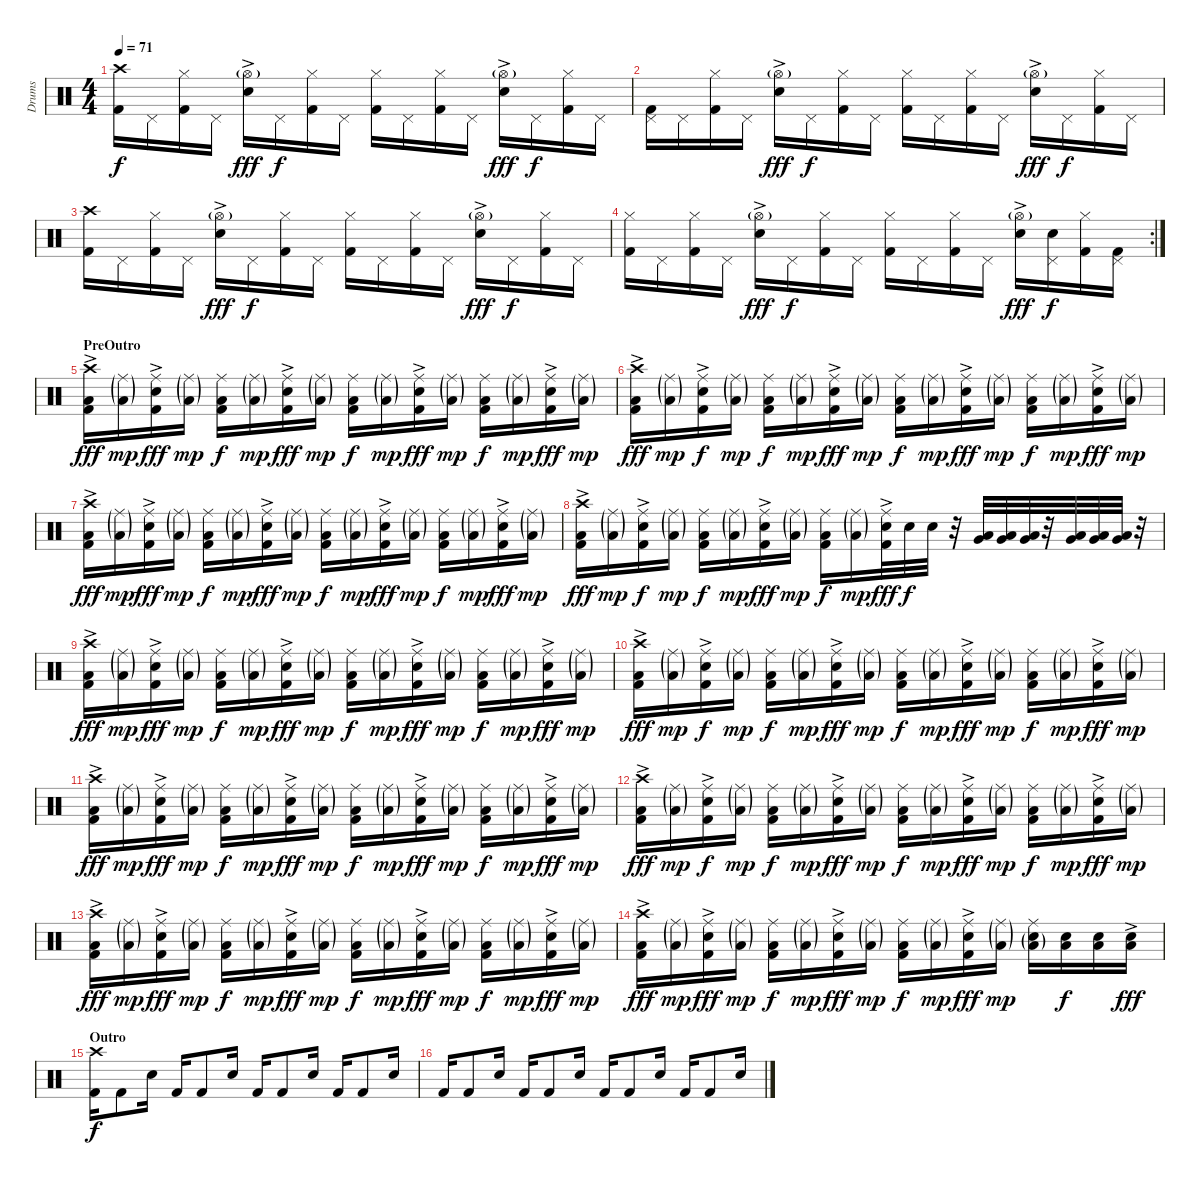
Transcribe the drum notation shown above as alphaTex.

\track ("Drums" "Drums") {instrument percussion}
\staff {score}
\articulation defaults
\ts (4 4)
\tempo 71
\clef neutral
\ks c
("Crash high (hit)" "Kick (hit) 2").16{dy f} "Pedal Hi-Hat (hit)".16 ("Hi-Hat (closed)" "Kick (hit) 2").16 "Pedal Hi-Hat (hit)".16 ("Hi-Hat (open)"{g} "Snare (hit) 2"{ac}).16{dy fff} "Pedal Hi-Hat (hit)".16{dy f} ("Hi-Hat (closed)" "Kick (hit) 2").16 "Pedal Hi-Hat (hit)".16 ("Hi-Hat (closed)" "Kick (hit) 2").16 "Pedal Hi-Hat (hit)".16 ("Hi-Hat (closed)" "Kick (hit) 2").16 "Pedal Hi-Hat (hit)".16 ("Hi-Hat (open)"{g} "Snare (hit) 2"{ac}).16{dy fff} "Pedal Hi-Hat (hit)".16{dy f} ("Hi-Hat (closed)" "Kick (hit) 2").16 "Pedal Hi-Hat (hit)".16 |
("Pedal Hi-Hat (hit)" "Kick (hit) 2").16 "Pedal Hi-Hat (hit)".16 ("Hi-Hat (closed)" "Kick (hit) 2").16 "Pedal Hi-Hat (hit)".16 ("Hi-Hat (open)"{g} "Snare (hit) 2"{ac}).16{dy fff} "Pedal Hi-Hat (hit)".16{dy f} ("Hi-Hat (closed)" "Kick (hit) 2").16 "Pedal Hi-Hat (hit)".16 ("Hi-Hat (closed)" "Kick (hit) 2").16 "Pedal Hi-Hat (hit)".16 ("Hi-Hat (closed)" "Kick (hit) 2").16 "Pedal Hi-Hat (hit)".16 ("Hi-Hat (open)"{g} "Snare (hit) 2"{ac}).16{dy fff} "Pedal Hi-Hat (hit)".16{dy f} ("Hi-Hat (closed)" "Kick (hit) 2").16 "Pedal Hi-Hat (hit)".16 |
("Crash high (hit)" "Kick (hit) 2").16 "Pedal Hi-Hat (hit)".16 ("Hi-Hat (closed)" "Kick (hit) 2").16 "Pedal Hi-Hat (hit)".16 ("Hi-Hat (open)"{g} "Snare (hit) 2"{ac}).16{dy fff} "Pedal Hi-Hat (hit)".16{dy f} ("Hi-Hat (closed)" "Kick (hit) 2").16 "Pedal Hi-Hat (hit)".16 ("Hi-Hat (closed)" "Kick (hit) 2").16 "Pedal Hi-Hat (hit)".16 ("Hi-Hat (closed)" "Kick (hit) 2").16 "Pedal Hi-Hat (hit)".16 ("Hi-Hat (open)"{g} "Snare (hit) 2"{ac}).16{dy fff} "Pedal Hi-Hat (hit)".16{dy f} ("Hi-Hat (closed)" "Kick (hit) 2").16 "Pedal Hi-Hat (hit)".16 |
\rc 2
("Hi-Hat (closed)" "Kick (hit) 2").16 "Pedal Hi-Hat (hit)".16 ("Hi-Hat (closed)" "Kick (hit) 2").16 "Pedal Hi-Hat (hit)".16 ("Hi-Hat (open)"{g} "Snare (hit) 2"{ac}).16{dy fff} "Pedal Hi-Hat (hit)".16{dy f} ("Hi-Hat (closed)" "Kick (hit) 2").16 "Pedal Hi-Hat (hit)".16 ("Hi-Hat (closed)" "Kick (hit) 2").16 "Pedal Hi-Hat (hit)".16 ("Hi-Hat (closed)" "Kick (hit) 2").16 "Pedal Hi-Hat (hit)".16 ("Hi-Hat (open)"{g} "Snare (hit) 2"{ac}).16{dy fff} ("Pedal Hi-Hat (hit)" "Snare (hit) 2").16{dy f} ("Hi-Hat (closed)" "Kick (hit) 2").16 ("Pedal Hi-Hat (hit)" "Kick (hit) 2").16 |
\section ("" "PreOutro")
("Crash high (hit)"{ac} "Low Floor Tom (hit)" "Kick (hit) 2").16{dy fff} ("Ride (middle)"{g} "Low Floor Tom (hit)"{g}).16{dy mp} ("Ride (middle)" "Electric Snare (hit)"{ac} "Kick (hit) 2").16{dy fff} ("Ride (middle)"{g} "Low Floor Tom (hit)"{g}).16{dy mp} ("Ride (middle)" "Low Floor Tom (hit)" "Kick (hit) 2").16{dy f} ("Ride (middle)"{g} "Low Floor Tom (hit)"{g}).16{dy mp} ("Ride (middle)" "Electric Snare (hit)"{ac} "Kick (hit) 2").16{dy fff} ("Ride (middle)"{g} "Low Floor Tom (hit)"{g}).16{dy mp} ("Ride (middle)" "Low Floor Tom (hit)" "Kick (hit) 2").16{dy f} ("Ride (middle)"{g} "Low Floor Tom (hit)"{g}).16{dy mp} ("Ride (middle)" "Electric Snare (hit)"{ac} "Kick (hit) 2").16{dy fff} ("Ride (middle)"{g} "Low Floor Tom (hit)"{g}).16{dy mp} ("Ride (middle)" "Low Floor Tom (hit)" "Kick (hit) 2").16{dy f} ("Ride (middle)"{g} "Low Floor Tom (hit)"{g}).16{dy mp} ("Ride (middle)" "Electric Snare (hit)"{ac} "Kick (hit) 2").16{dy fff} ("Ride (middle)"{g} "Low Floor Tom (hit)"{g}).16{dy mp} |
("Crash high (hit)"{ac} "Low Floor Tom (hit)" "Kick (hit) 2").16{dy fff} ("Ride (middle)"{g} "Low Floor Tom (hit)"{g}).16{dy mp} ("Ride (middle)" "Electric Snare (hit)"{ac} "Kick (hit) 2").16{dy f} ("Ride (middle)"{g} "Low Floor Tom (hit)"{g}).16{dy mp} ("Ride (middle)" "Low Floor Tom (hit)" "Kick (hit) 2").16{dy f} ("Ride (middle)"{g} "Low Floor Tom (hit)"{g}).16{dy mp} ("Ride (middle)" "Electric Snare (hit)"{ac} "Kick (hit) 2").16{dy fff} ("Ride (middle)"{g} "Low Floor Tom (hit)"{g}).16{dy mp} ("Ride (middle)" "Low Floor Tom (hit)" "Kick (hit) 2").16{dy f} ("Ride (middle)"{g} "Low Floor Tom (hit)"{g}).16{dy mp} ("Ride (middle)" "Electric Snare (hit)"{ac} "Kick (hit) 2").16{dy fff} ("Ride (middle)"{g} "Low Floor Tom (hit)"{g}).16{dy mp} ("Ride (middle)" "Low Floor Tom (hit)" "Kick (hit) 2").16{dy f} ("Ride (middle)"{g} "Low Floor Tom (hit)"{g}).16{dy mp} ("Ride (middle)" "Electric Snare (hit)"{ac} "Kick (hit) 2").16{dy fff} ("Ride (middle)"{g} "Low Floor Tom (hit)"{g}).16{dy mp} |
("Crash high (hit)"{ac} "Low Floor Tom (hit)" "Kick (hit) 2").16{dy fff} ("Ride (middle)"{g} "Low Floor Tom (hit)"{g}).16{dy mp} ("Ride (middle)" "Electric Snare (hit)"{ac} "Kick (hit) 2").16{dy fff} ("Ride (middle)"{g} "Low Floor Tom (hit)"{g}).16{dy mp} ("Ride (middle)" "Low Floor Tom (hit)" "Kick (hit) 2").16{dy f} ("Ride (middle)"{g} "Low Floor Tom (hit)"{g}).16{dy mp} ("Ride (middle)" "Electric Snare (hit)"{ac} "Kick (hit) 2").16{dy fff} ("Ride (middle)"{g} "Low Floor Tom (hit)"{g}).16{dy mp} ("Ride (middle)" "Low Floor Tom (hit)" "Kick (hit) 2").16{dy f} ("Ride (middle)"{g} "Low Floor Tom (hit)"{g}).16{dy mp} ("Ride (middle)" "Electric Snare (hit)"{ac} "Kick (hit) 2").16{dy fff} ("Ride (middle)"{g} "Low Floor Tom (hit)"{g}).16{dy mp} ("Ride (middle)" "Low Floor Tom (hit)" "Kick (hit) 2").16{dy f} ("Ride (middle)"{g} "Low Floor Tom (hit)"{g}).16{dy mp} ("Ride (middle)" "Electric Snare (hit)"{ac} "Kick (hit) 2").16{dy fff} ("Ride (middle)"{g} "Low Floor Tom (hit)"{g}).16{dy mp} |
("Crash high (hit)"{ac} "Low Floor Tom (hit)" "Kick (hit) 2").16{dy fff} ("Ride (middle)"{g} "Low Floor Tom (hit)"{g}).16{dy mp} ("Ride (middle)" "Electric Snare (hit)"{ac} "Kick (hit) 2").16{dy f} ("Ride (middle)"{g} "Low Floor Tom (hit)"{g}).16{dy mp} ("Ride (middle)" "Low Floor Tom (hit)" "Kick (hit) 2").16{dy f} ("Ride (middle)"{g} "Low Floor Tom (hit)"{g}).16{dy mp} ("Ride (middle)" "Electric Snare (hit)"{ac} "Kick (hit) 2").16{dy fff} ("Ride (middle)"{g} "Low Floor Tom (hit)"{g}).16{dy mp} ("Ride (middle)" "Low Floor Tom (hit)" "Kick (hit) 2").16{dy f} ("Ride (middle)"{g} "Low Floor Tom (hit)"{g}).16{dy mp} ("Ride (middle)" "Electric Snare (hit)"{ac} "Kick (hit) 2").32{dy fff} "Electric Snare (hit)".32{dy f} "Electric Snare (hit)".32 r.32 ("Low Tom (hit)" "Very Low Tom (hit)").32 ("Low Tom (hit)" "Very Low Tom (hit)").32 ("Low Tom (hit)" "Very Low Tom (hit)").32 r.32 ("Very Low Tom (hit)" "Low Floor Tom (hit)").32 ("Very Low Tom (hit)" "Low Floor Tom (hit)").32 ("Very Low Tom (hit)" "Low Floor Tom (hit)").32 r.32 |
("Crash high (hit)"{ac} "Low Floor Tom (hit)" "Kick (hit) 2").16{dy fff} ("Ride (middle)"{g} "Low Floor Tom (hit)"{g}).16{dy mp} ("Ride (middle)" "Electric Snare (hit)"{ac} "Kick (hit) 2").16{dy fff} ("Ride (middle)"{g} "Low Floor Tom (hit)"{g}).16{dy mp} ("Ride (middle)" "Low Floor Tom (hit)" "Kick (hit) 2").16{dy f} ("Ride (middle)"{g} "Low Floor Tom (hit)"{g}).16{dy mp} ("Ride (middle)" "Electric Snare (hit)"{ac} "Kick (hit) 2").16{dy fff} ("Ride (middle)"{g} "Low Floor Tom (hit)"{g}).16{dy mp} ("Ride (middle)" "Low Floor Tom (hit)" "Kick (hit) 2").16{dy f} ("Ride (middle)"{g} "Low Floor Tom (hit)"{g}).16{dy mp} ("Ride (middle)" "Electric Snare (hit)"{ac} "Kick (hit) 2").16{dy fff} ("Ride (middle)"{g} "Low Floor Tom (hit)"{g}).16{dy mp} ("Ride (middle)" "Low Floor Tom (hit)" "Kick (hit) 2").16{dy f} ("Ride (middle)"{g} "Low Floor Tom (hit)"{g}).16{dy mp} ("Ride (middle)" "Electric Snare (hit)"{ac} "Kick (hit) 2").16{dy fff} ("Ride (middle)"{g} "Low Floor Tom (hit)"{g}).16{dy mp} |
("Crash high (hit)"{ac} "Low Floor Tom (hit)" "Kick (hit) 2").16{dy fff} ("Ride (middle)"{g} "Low Floor Tom (hit)"{g}).16{dy mp} ("Ride (middle)" "Electric Snare (hit)"{ac} "Kick (hit) 2").16{dy f} ("Ride (middle)"{g} "Low Floor Tom (hit)"{g}).16{dy mp} ("Ride (middle)" "Low Floor Tom (hit)" "Kick (hit) 2").16{dy f} ("Ride (middle)"{g} "Low Floor Tom (hit)"{g}).16{dy mp} ("Ride (middle)" "Electric Snare (hit)"{ac} "Kick (hit) 2").16{dy fff} ("Ride (middle)"{g} "Low Floor Tom (hit)"{g}).16{dy mp} ("Ride (middle)" "Low Floor Tom (hit)" "Kick (hit) 2").16{dy f} ("Ride (middle)"{g} "Low Floor Tom (hit)"{g}).16{dy mp} ("Ride (middle)" "Electric Snare (hit)"{ac} "Kick (hit) 2").16{dy fff} ("Ride (middle)"{g} "Low Floor Tom (hit)"{g}).16{dy mp} ("Ride (middle)" "Low Floor Tom (hit)" "Kick (hit) 2").16{dy f} ("Ride (middle)"{g} "Low Floor Tom (hit)"{g}).16{dy mp} ("Ride (middle)" "Electric Snare (hit)"{ac} "Kick (hit) 2").16{dy fff} ("Ride (middle)"{g} "Low Floor Tom (hit)"{g}).16{dy mp} |
("Crash high (hit)"{ac} "Low Floor Tom (hit)" "Kick (hit) 2").16{dy fff} ("Ride (middle)"{g} "Low Floor Tom (hit)"{g}).16{dy mp} ("Ride (middle)" "Electric Snare (hit)"{ac} "Kick (hit) 2").16{dy fff} ("Ride (middle)"{g} "Low Floor Tom (hit)"{g}).16{dy mp} ("Ride (middle)" "Low Floor Tom (hit)" "Kick (hit) 2").16{dy f} ("Ride (middle)"{g} "Low Floor Tom (hit)"{g}).16{dy mp} ("Ride (middle)" "Electric Snare (hit)"{ac} "Kick (hit) 2").16{dy fff} ("Ride (middle)"{g} "Low Floor Tom (hit)"{g}).16{dy mp} ("Ride (middle)" "Low Floor Tom (hit)" "Kick (hit) 2").16{dy f} ("Ride (middle)"{g} "Low Floor Tom (hit)"{g}).16{dy mp} ("Ride (middle)" "Electric Snare (hit)"{ac} "Kick (hit) 2").16{dy fff} ("Ride (middle)"{g} "Low Floor Tom (hit)"{g}).16{dy mp} ("Ride (middle)" "Low Floor Tom (hit)" "Kick (hit) 2").16{dy f} ("Ride (middle)"{g} "Low Floor Tom (hit)"{g}).16{dy mp} ("Ride (middle)" "Electric Snare (hit)"{ac} "Kick (hit) 2").16{dy fff} ("Ride (middle)"{g} "Low Floor Tom (hit)"{g}).16{dy mp} |
("Crash high (hit)"{ac} "Low Floor Tom (hit)" "Kick (hit) 2").16{dy fff} ("Ride (middle)"{g} "Low Floor Tom (hit)"{g}).16{dy mp} ("Ride (middle)" "Electric Snare (hit)"{ac} "Kick (hit) 2").16{dy f} ("Ride (middle)"{g} "Low Floor Tom (hit)"{g}).16{dy mp} ("Ride (middle)" "Low Floor Tom (hit)" "Kick (hit) 2").16{dy f} ("Ride (middle)"{g} "Low Floor Tom (hit)"{g}).16{dy mp} ("Ride (middle)" "Electric Snare (hit)"{ac} "Kick (hit) 2").16{dy fff} ("Ride (middle)"{g} "Low Floor Tom (hit)"{g}).16{dy mp} ("Ride (middle)" "Low Floor Tom (hit)" "Kick (hit) 2").16{dy f} ("Ride (middle)"{g} "Low Floor Tom (hit)"{g}).16{dy mp} ("Ride (middle)" "Electric Snare (hit)"{ac} "Kick (hit) 2").16{dy fff} ("Ride (middle)"{g} "Low Floor Tom (hit)"{g}).16{dy mp} ("Ride (middle)" "Low Floor Tom (hit)" "Kick (hit) 2").16{dy f} ("Ride (middle)"{g} "Low Floor Tom (hit)"{g}).16{dy mp} ("Ride (middle)" "Electric Snare (hit)"{ac} "Kick (hit) 2").16{dy fff} ("Ride (middle)"{g} "Low Floor Tom (hit)"{g}).16{dy mp} |
("Crash high (hit)"{ac} "Low Floor Tom (hit)" "Kick (hit) 2").16{dy fff} ("Ride (middle)"{g} "Low Floor Tom (hit)"{g}).16{dy mp} ("Ride (middle)" "Electric Snare (hit)"{ac} "Kick (hit) 2").16{dy fff} ("Ride (middle)"{g} "Low Floor Tom (hit)"{g}).16{dy mp} ("Ride (middle)" "Low Floor Tom (hit)" "Kick (hit) 2").16{dy f} ("Ride (middle)"{g} "Low Floor Tom (hit)"{g}).16{dy mp} ("Ride (middle)" "Electric Snare (hit)"{ac} "Kick (hit) 2").16{dy fff} ("Ride (middle)"{g} "Low Floor Tom (hit)"{g}).16{dy mp} ("Ride (middle)" "Low Floor Tom (hit)" "Kick (hit) 2").16{dy f} ("Ride (middle)"{g} "Low Floor Tom (hit)"{g}).16{dy mp} ("Ride (middle)" "Electric Snare (hit)"{ac} "Kick (hit) 2").16{dy fff} ("Ride (middle)"{g} "Low Floor Tom (hit)"{g}).16{dy mp} ("Ride (middle)" "Low Floor Tom (hit)" "Kick (hit) 2").16{dy f} ("Ride (middle)"{g} "Low Floor Tom (hit)"{g}).16{dy mp} ("Ride (middle)" "Electric Snare (hit)"{ac} "Kick (hit) 2").16{dy fff} ("Ride (middle)"{g} "Low Floor Tom (hit)"{g}).16{dy mp} |
("Crash high (hit)"{ac} "Low Floor Tom (hit)" "Kick (hit) 2").16{dy fff} ("Ride (middle)"{g} "Low Floor Tom (hit)"{g}).16{dy mp} ("Ride (middle)" "Electric Snare (hit)"{ac} "Kick (hit) 2").16{dy fff} ("Ride (middle)"{g} "Low Floor Tom (hit)"{g}).16{dy mp} ("Ride (middle)" "Low Floor Tom (hit)" "Kick (hit) 2").16{dy f} ("Ride (middle)"{g} "Low Floor Tom (hit)"{g}).16{dy mp} ("Ride (middle)" "Electric Snare (hit)"{ac} "Kick (hit) 2").16{dy fff} ("Ride (middle)"{g} "Low Floor Tom (hit)"{g}).16{dy mp} ("Ride (middle)" "Low Floor Tom (hit)" "Kick (hit) 2").16{dy f} ("Ride (middle)"{g} "Low Floor Tom (hit)"{g}).16{dy mp} ("Ride (middle)" "Electric Snare (hit)"{ac} "Kick (hit) 2").16{dy fff} ("Ride (middle)"{g} "Low Floor Tom (hit)"{g}).16{dy mp} ("Ride (middle)" "Electric Snare (hit)"{g} "Low Floor Tom (hit)"{g}).16 ("Electric Snare (hit)" "Low Floor Tom (hit)").16{dy f} ("Electric Snare (hit)" "Low Floor Tom (hit)").16 ("Electric Snare (hit)"{ac} "Low Floor Tom (hit)"{ac}).16{dy fff} |
\section ("" "Outro")
("Crash high (hit)" "Kick (hit) 2").16{dy f} "Kick (hit) 2".8 "Electric Snare (hit)".16 "Kick (hit) 2".16 "Kick (hit) 2".8 "Electric Snare (hit)".16 "Kick (hit) 2".16 "Kick (hit) 2".8 "Electric Snare (hit)".16 "Kick (hit) 2".16 "Kick (hit) 2".8 "Electric Snare (hit)".16 |
"Kick (hit) 2".16 "Kick (hit) 2".8 "Electric Snare (hit)".16 "Kick (hit) 2".16 "Kick (hit) 2".8 "Electric Snare (hit)".16 "Kick (hit) 2".16 "Kick (hit) 2".8 "Electric Snare (hit)".16 "Kick (hit) 2".16 "Kick (hit) 2".8 "Electric Snare (hit)".16
